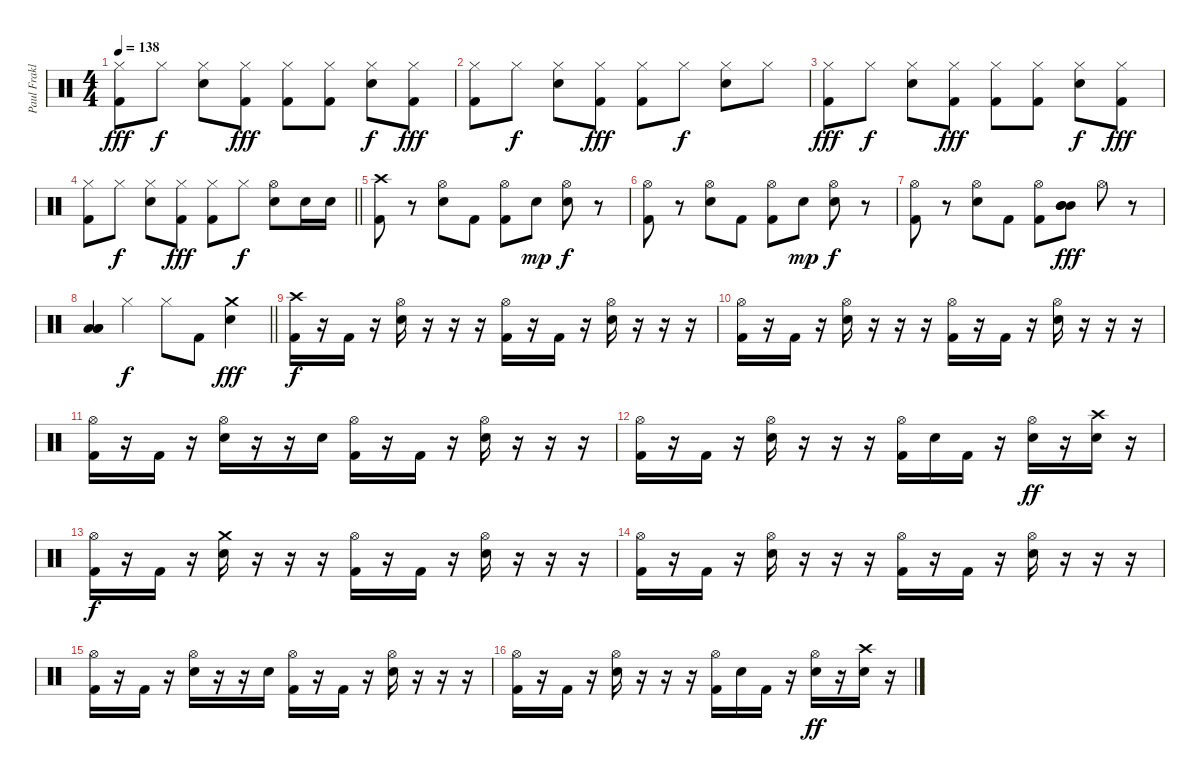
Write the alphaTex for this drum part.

\track ("Paul Fraklin Percusion" "Paul Frakl") {instrument percussion}
\staff {score}
\articulation defaults
\ts (4 4)
\tempo 138
\clef neutral
\ks c
("Hi-Hat (closed)" "Kick (hit) 2").8{dy fff} "Hi-Hat (closed)".8{dy f} ("Hi-Hat (closed)" "Electric Snare (hit)").8 ("Hi-Hat (closed)" "Kick (hit) 2").8{dy fff} ("Hi-Hat (closed)" "Kick (hit) 2").8 ("Hi-Hat (closed)" "Kick (hit) 2").8 ("Hi-Hat (closed)" "Electric Snare (hit)").8{dy f} ("Hi-Hat (closed)" "Kick (hit) 2").8{dy fff} |
("Hi-Hat (closed)" "Kick (hit) 2").8 "Hi-Hat (closed)".8{dy f} ("Hi-Hat (closed)" "Electric Snare (hit)").8 ("Hi-Hat (closed)" "Kick (hit) 2").8{dy fff} ("Hi-Hat (closed)" "Kick (hit) 2").8 "Hi-Hat (closed)".8{dy f} ("Hi-Hat (closed)" "Electric Snare (hit)").8 "Hi-Hat (closed)".8 |
("Hi-Hat (closed)" "Kick (hit) 2").8{dy fff} "Hi-Hat (closed)".8{dy f} ("Hi-Hat (closed)" "Electric Snare (hit)").8 ("Hi-Hat (closed)" "Kick (hit) 2").8{dy fff} ("Hi-Hat (closed)" "Kick (hit) 2").8 ("Hi-Hat (closed)" "Kick (hit) 2").8 ("Hi-Hat (closed)" "Electric Snare (hit)").8{dy f} ("Hi-Hat (closed)" "Kick (hit) 2").8{dy fff} |
\barLineRight lightlight
("Hi-Hat (closed)" "Kick (hit) 2").8 "Hi-Hat (closed)".8{dy f} ("Hi-Hat (closed)" "Electric Snare (hit)").8 ("Hi-Hat (closed)" "Kick (hit) 2").8{dy fff} ("Hi-Hat (closed)" "Kick (hit) 2").8 "Hi-Hat (closed)".8{dy f} ("Hi-Hat (open)" "Electric Snare (hit)").8 "Electric Snare (hit)".16 "Electric Snare (hit)".16 |
("Crash high (hit)" "Kick (hit) 2").8 r.8 ("Hi-Hat (open)" "Electric Snare (hit)").8 "Kick (hit) 2".8 ("Hi-Hat (open)" "Kick (hit) 2").8 "Electric Snare (hit)".8{dy mp} ("Hi-Hat (open)" "Electric Snare (hit)").8{dy f} r.8 |
("Hi-Hat (open)" "Kick (hit) 2").8 r.8 ("Hi-Hat (open)" "Electric Snare (hit)").8 "Kick (hit) 2".8 ("Hi-Hat (open)" "Kick (hit) 2").8 "Electric Snare (hit)".8{dy mp} ("Hi-Hat (open)" "Electric Snare (hit)").8{dy f} r.8 |
("Hi-Hat (open)" "Kick (hit) 2").8 r.8 ("Hi-Hat (open)" "Electric Snare (hit)").8 "Kick (hit) 2".8 ("Hi-Hat (open)" "Kick (hit) 2").8 ("Mid Tom (hit)" "Mid Tom (hit)" "Mid Tom (hit)").8{dy fff} "Hi-Hat (open)".8 r.8 |
\barLineRight lightlight
("Low Tom (hit)" "Low Tom (hit)" "Low Tom (hit)").4 "Hi-Hat (closed)".4{dy f} "Hi-Hat (closed)".8 "Kick (hit) 2".8 ("Crash medium (hit)" "Electric Snare (hit)").4{dy fff} |
("Crash high (hit)" "Kick (hit) 2").16{dy f} r.16 "Kick (hit) 2".16 r.16 ("Hi-Hat (open)" "Electric Snare (hit)").16 r.16 r.16 r.16 ("Hi-Hat (open)" "Kick (hit) 2").16 r.16 "Kick (hit) 2".16 r.16 ("Hi-Hat (open)" "Electric Snare (hit)").16 r.16 r.16 r.16 |
("Hi-Hat (open)" "Kick (hit) 2").16 r.16 "Kick (hit) 2".16 r.16 ("Hi-Hat (open)" "Electric Snare (hit)").16 r.16 r.16 r.16 ("Hi-Hat (open)" "Kick (hit) 2").16 r.16 "Kick (hit) 2".16 r.16 ("Hi-Hat (open)" "Electric Snare (hit)").16 r.16 r.16 r.16 |
("Hi-Hat (open)" "Kick (hit) 2").16 r.16 "Kick (hit) 2".16 r.16 ("Hi-Hat (open)" "Electric Snare (hit)").16 r.16 r.16 "Electric Snare (hit)".16 ("Hi-Hat (open)" "Kick (hit) 2").16 r.16 "Kick (hit) 2".16 r.16 ("Hi-Hat (open)" "Electric Snare (hit)").16 r.16 r.16 r.16 |
("Hi-Hat (open)" "Kick (hit) 2").16 r.16 "Kick (hit) 2".16 r.16 ("Hi-Hat (open)" "Electric Snare (hit)").16 r.16 r.16 r.16 ("Hi-Hat (open)" "Kick (hit) 2").16 "Electric Snare (hit)".16 "Kick (hit) 2".16 r.16 ("Hi-Hat (open)" "Electric Snare (hit)").16{dy ff} r.16 ("Crash high (hit)" "Electric Snare (hit)").16 r.16 |
("Hi-Hat (open)" "Kick (hit) 2").16{dy f} r.16 "Kick (hit) 2".16 r.16 ("Crash medium (hit)" "Electric Snare (hit)").16 r.16 r.16 r.16 ("Hi-Hat (open)" "Kick (hit) 2").16 r.16 "Kick (hit) 2".16 r.16 ("Hi-Hat (open)" "Electric Snare (hit)").16 r.16 r.16 r.16 |
("Hi-Hat (open)" "Kick (hit) 2").16 r.16 "Kick (hit) 2".16 r.16 ("Hi-Hat (open)" "Electric Snare (hit)").16 r.16 r.16 r.16 ("Hi-Hat (open)" "Kick (hit) 2").16 r.16 "Kick (hit) 2".16 r.16 ("Hi-Hat (open)" "Electric Snare (hit)").16 r.16 r.16 r.16 |
("Hi-Hat (open)" "Kick (hit) 2").16 r.16 "Kick (hit) 2".16 r.16 ("Hi-Hat (open)" "Electric Snare (hit)").16 r.16 r.16 "Electric Snare (hit)".16 ("Hi-Hat (open)" "Kick (hit) 2").16 r.16 "Kick (hit) 2".16 r.16 ("Hi-Hat (open)" "Electric Snare (hit)").16 r.16 r.16 r.16 |
("Hi-Hat (open)" "Kick (hit) 2").16 r.16 "Kick (hit) 2".16 r.16 ("Hi-Hat (open)" "Electric Snare (hit)").16 r.16 r.16 r.16 ("Hi-Hat (open)" "Kick (hit) 2").16 "Electric Snare (hit)".16 "Kick (hit) 2".16 r.16 ("Hi-Hat (open)" "Electric Snare (hit)").16{dy ff} r.16 ("Crash high (hit)" "Electric Snare (hit)").16 r.16
